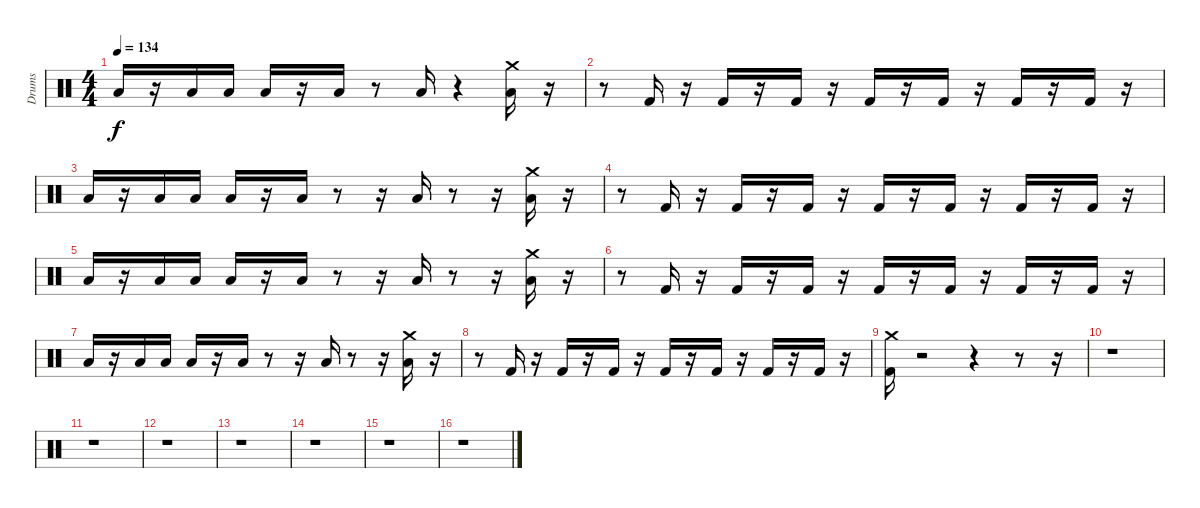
\track ("Drums               " "Drums     ") {instrument percussion}
\staff {score}
\articulation defaults
\ts (4 4)
\tempo 134
\clef neutral
\ks c "Low Floor Tom (hit)".16{dy f}
r.16 "Low Floor Tom (hit)".16 "Low Floor Tom (hit)".16 "Low Floor Tom (hit)".16 r.16 "Low Floor Tom (hit)".16 r.8 "Low Floor Tom (hit)".16 r.4 ("Low Floor Tom (hit)" "Crash medium (hit)").16 r.16 |
r.8 "Kick (hit) 2".16 r.16 "Kick (hit) 2".16 r.16 "Kick (hit) 2".16 r.16 "Kick (hit) 2".16 r.16 "Kick (hit) 2".16 r.16 "Kick (hit) 2".16 r.16 "Kick (hit) 2".16 r.16 |
"Low Floor Tom (hit)".16 r.16 "Low Floor Tom (hit)".16 "Low Floor Tom (hit)".16 "Low Floor Tom (hit)".16 r.16 "Low Floor Tom (hit)".16 r.8 r.16 "Low Floor Tom (hit)".16 r.8 r.16 ("Low Floor Tom (hit)" "Crash medium (hit)").16 r.16 |
r.8 "Kick (hit) 2".16 r.16 "Kick (hit) 2".16 r.16 "Kick (hit) 2".16 r.16 "Kick (hit) 2".16 r.16 "Kick (hit) 2".16 r.16 "Kick (hit) 2".16 r.16 "Kick (hit) 2".16 r.16 |
"Low Floor Tom (hit)".16 r.16 "Low Floor Tom (hit)".16 "Low Floor Tom (hit)".16 "Low Floor Tom (hit)".16 r.16 "Low Floor Tom (hit)".16 r.8 r.16 "Low Floor Tom (hit)".16 r.8 r.16 ("Low Floor Tom (hit)" "Crash medium (hit)").16 r.16 |
r.8 "Kick (hit) 2".16 r.16 "Kick (hit) 2".16 r.16 "Kick (hit) 2".16 r.16 "Kick (hit) 2".16 r.16 "Kick (hit) 2".16 r.16 "Kick (hit) 2".16 r.16 "Kick (hit) 2".16 r.16 |
"Low Floor Tom (hit)".16 r.16 "Low Floor Tom (hit)".16 "Low Floor Tom (hit)".16 "Low Floor Tom (hit)".16 r.16 "Low Floor Tom (hit)".16 r.8 r.16 "Low Floor Tom (hit)".16 r.8 r.16 ("Low Floor Tom (hit)" "Crash medium (hit)").16 r.16 |
r.8 "Kick (hit) 2".16 r.16 "Kick (hit) 2".16 r.16 "Kick (hit) 2".16 r.16 "Kick (hit) 2".16 r.16 "Kick (hit) 2".16 r.16 "Kick (hit) 2".16 r.16 "Kick (hit) 2".16 r.16 |
("Kick (hit) 2" "Crash medium (hit)").16 r.2 r.4 r.8 r.16 |
r.1 |
r.1 |
r.1 |
r.1 |
r.1 |
r.1 |
r.1
